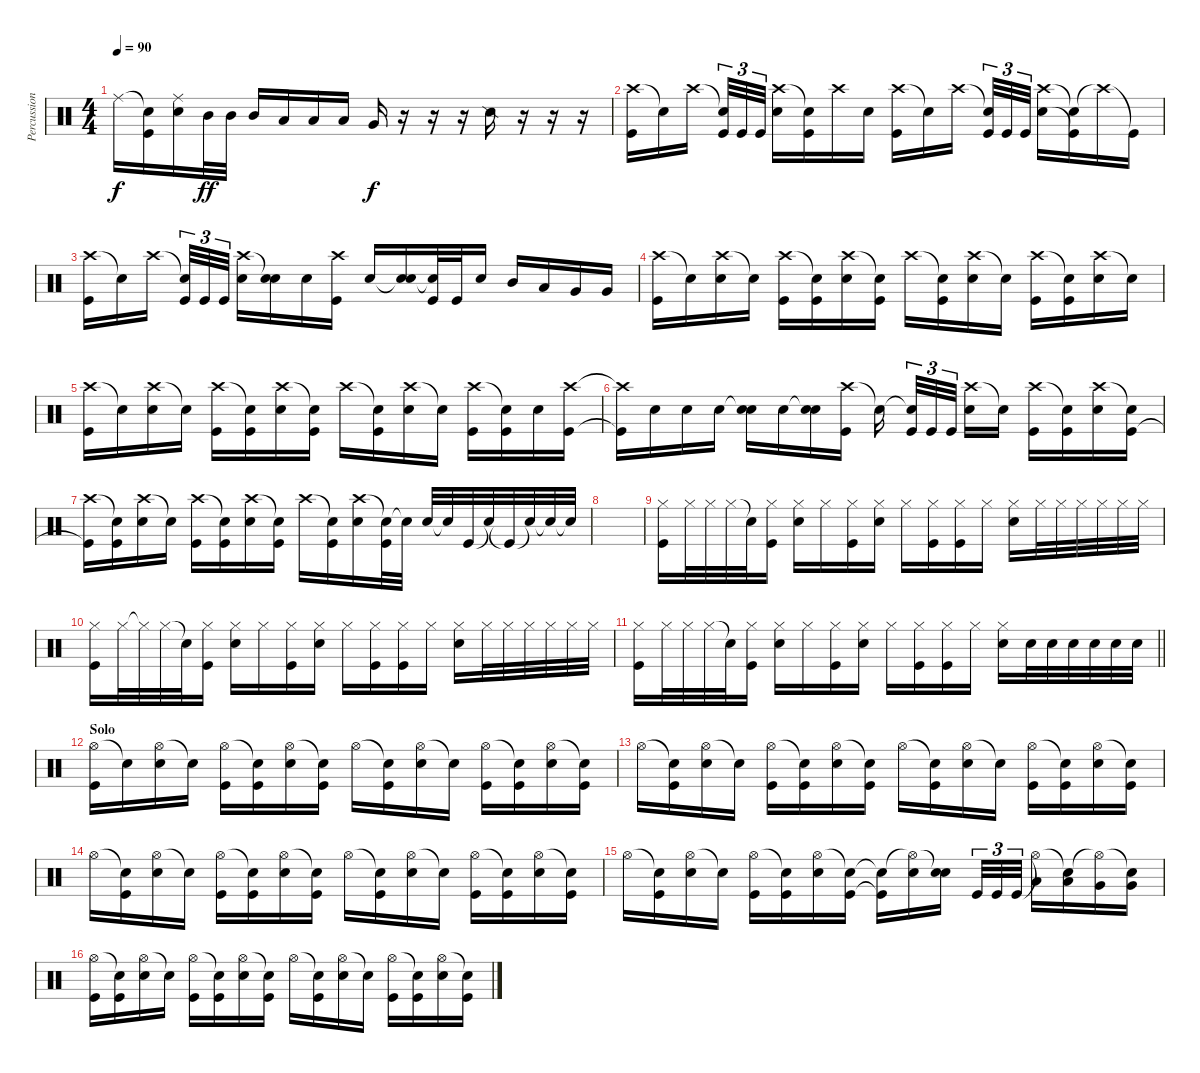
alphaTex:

\track ("Percussion" "Percussion") {instrument percussion}
\staff {score}
\articulation defaults
\ts (4 4)
\tempo 90
\clef neutral
\ks c "Ride (middle)".16{dy f}
("Snare (hit)"{t} "Kick (hit)").16 ("Ride (middle)" "Electric Snare (hit)").16 "Mid Tom (hit)".32{dy ff} "Mid Tom (hit)".32 "Mid Tom (hit)".16 "Low Tom (hit)".16 "Low Tom (hit)".16 "Low Tom (hit)".16 "Very Low Tom (hit)".16{dy f} r.16 r.16 r.16 "Snare (side stick) 2".16 r.16 r.16 r.16 |
("Crash high (hit)" "Kick (hit)").16 "Snare (hit)"{t}.16 "Crash high (hit)".16 ("Snare (hit)"{t} "Kick (hit)").32{tu (3 2)} "Kick (hit)".32{tu (3 2)} "Kick (hit)".32{tu (3 2)} ("Crash high (hit)" "Electric Snare (hit)").16 ("Snare (hit)"{t} "Kick (hit)").16 "Crash high (hit)".16 "Electric Snare (hit)".16 ("Crash high (hit)" "Kick (hit)").16 "Snare (hit)"{t}.16 "Crash high (hit)".16 ("Snare (hit)"{t} "Kick (hit)").32{tu (3 2)} "Kick (hit)".32{tu (3 2)} "Kick (hit)".32{tu (3 2)} ("Crash high (hit)" "Electric Snare (hit)").16 ("Snare (hit)"{t} "Kick (hit)"{t}).16 "Crash high (hit)"{t}.16 "Kick (hit)"{t}.16 |
("Crash high (hit)" "Kick (hit)").16 "Snare (hit)"{t}.16 "Crash high (hit)".16 ("Snare (hit)"{t} "Kick (hit)").32{tu (3 2)} "Kick (hit)".32{tu (3 2)} "Kick (hit)".32{tu (3 2)} ("Crash high (hit)" "Electric Snare (hit)").16 ("Snare (hit)"{t} "Electric Snare (hit)").16 "Electric Snare (hit)".16 ("Crash high (hit)" "Kick (hit)").16 "Electric Snare (hit)".16 ("Snare (hit)"{t} "Electric Snare (hit)").16 ("Snare (hit)"{t} "Kick (hit)").32 "Kick (hit)".32 "Electric Snare (hit)".16 "Mid Tom (hit)".16 "Low Tom (hit)".16 "Very Low Tom (hit)".16 "Very Low Tom (hit)".16 |
("Crash high (hit)" "Kick (hit)").16 "Snare (hit)"{t}.16 ("Crash high (hit)" "Electric Snare (hit)").16 "Snare (hit)"{t}.16 ("Crash high (hit)" "Kick (hit)").16 ("Snare (hit)"{t} "Kick (hit)").16 ("Crash high (hit)" "Electric Snare (hit)").16 ("Snare (hit)"{t} "Kick (hit)").16 "Crash high (hit)".16 ("Snare (hit)"{t} "Kick (hit)").16 ("Crash high (hit)" "Electric Snare (hit)").16 "Snare (hit)"{t}.16 ("Crash high (hit)" "Kick (hit)").16 ("Snare (hit)"{t} "Kick (hit)").16 ("Crash high (hit)" "Electric Snare (hit)").16 "Snare (hit)"{t}.16 |
("Crash high (hit)" "Kick (hit)").16 "Snare (hit)"{t}.16 ("Crash high (hit)" "Electric Snare (hit)").16 "Snare (hit)"{t}.16 ("Crash high (hit)" "Kick (hit)").16 ("Snare (hit)"{t} "Kick (hit)").16 ("Crash high (hit)" "Electric Snare (hit)").16 ("Snare (hit)"{t} "Kick (hit)").16 "Crash high (hit)".16 ("Snare (hit)"{t} "Kick (hit)").16 ("Crash high (hit)" "Electric Snare (hit)").16 "Snare (hit)"{t}.16 ("Crash high (hit)" "Kick (hit)").16 ("Snare (hit)"{t} "Kick (hit)").16 "Electric Snare (hit)".16 ("Crash high (hit)" "Kick (hit)").16 |
("Crash high (hit)"{t} "Kick (hit)"{t}).16 "Electric Snare (hit)".16 "Electric Snare (hit)".16 "Electric Snare (hit)".16 ("Snare (hit)"{t} "Electric Snare (hit)").16 "Electric Snare (hit)".16 ("Snare (hit)"{t} "Electric Snare (hit)").16 ("Crash high (hit)" "Kick (hit)").16 "Snare (hit)"{t}.16 ("Snare (hit)"{t} "Kick (hit)").32{tu (3 2)} "Kick (hit)".32{tu (3 2)} "Kick (hit)".32{tu (3 2)} ("Crash high (hit)" "Electric Snare (hit)").16 "Snare (hit)"{t}.16 ("Crash high (hit)" "Kick (hit)").16 ("Snare (hit)"{t} "Kick (hit)").16 ("Crash high (hit)" "Electric Snare (hit)").16 ("Snare (hit)"{t} "Kick (hit)").16 |
("Crash high (hit)" "Kick (hit)"{t}).16 ("Snare (hit)"{t} "Kick (hit)").16 ("Crash high (hit)" "Electric Snare (hit)").16 "Snare (hit)"{t}.16 ("Crash high (hit)" "Kick (hit)").16 ("Snare (hit)"{t} "Kick (hit)").16 ("Crash high (hit)" "Electric Snare (hit)").16 ("Snare (hit)"{t} "Kick (hit)").16 "Crash high (hit)".16 ("Snare (hit)"{t} "Kick (hit)").16 ("Crash high (hit)" "Electric Snare (hit)").16 ("Snare (hit)"{t} "Kick (hit)").32 "Electric Snare (hit)"{t}.32 "Electric Snare (hit)".32 "Snare (hit)"{t}.32 "Kick (hit)".32 "Snare (hit)"{t}.32 "Kick (hit)"{t}.32 "Snare (hit)"{t}.32 "Snare (hit)"{t}.32 "Snare (hit)"{t}.32 |
|
("Hi-Hat (closed)" "Kick (hit)").16 "Hi-Hat (closed)".32 "Hi-Hat (closed)".32 "Hi-Hat (closed)".32 "Snare (hit)"{t}.32 ("Hi-Hat (closed)" "Kick (hit)").16 ("Hi-Hat (closed)" "Electric Snare (hit)").16 "Hi-Hat (closed)".16 ("Hi-Hat (closed)" "Kick (hit)").16 ("Hi-Hat (closed)" "Electric Snare (hit)").16 "Hi-Hat (closed)".16 ("Hi-Hat (closed)" "Kick (hit)").16 ("Hi-Hat (closed)" "Kick (hit)").16 "Hi-Hat (closed)".16 ("Hi-Hat (closed)" "Electric Snare (hit)").16 "Hi-Hat (closed)".32 "Hi-Hat (closed)".32 "Hi-Hat (closed)".32 "Hi-Hat (closed)".32 "Hi-Hat (closed)".32 "Hi-Hat (closed)".32 |
("Hi-Hat (closed)" "Kick (hit)").16 "Hi-Hat (closed)".32 "Hi-Hat (closed)"{t}.32 "Hi-Hat (closed)".32 "Snare (hit)"{t}.32 ("Hi-Hat (closed)" "Kick (hit)").16 ("Hi-Hat (closed)" "Electric Snare (hit)").16 "Hi-Hat (closed)".16 ("Hi-Hat (closed)" "Kick (hit)").16 ("Hi-Hat (closed)" "Electric Snare (hit)").16 "Hi-Hat (closed)".16 ("Hi-Hat (closed)" "Kick (hit)").16 ("Hi-Hat (closed)" "Kick (hit)").16 "Hi-Hat (closed)".16 ("Hi-Hat (closed)" "Electric Snare (hit)").16 "Hi-Hat (closed)".32 "Hi-Hat (closed)".32 "Hi-Hat (closed)".32 "Hi-Hat (closed)".32 "Hi-Hat (closed)".32 "Hi-Hat (closed)".32 |
\barLineRight lightlight
("Hi-Hat (closed)" "Kick (hit)").16 "Hi-Hat (closed)".32 "Hi-Hat (closed)".32 "Hi-Hat (closed)".32 "Snare (hit)"{t}.32 ("Hi-Hat (closed)" "Kick (hit)").16 ("Hi-Hat (closed)" "Electric Snare (hit)").16 "Hi-Hat (closed)".16 ("Hi-Hat (closed)" "Kick (hit)").16 ("Hi-Hat (closed)" "Electric Snare (hit)").16 "Hi-Hat (closed)".16 ("Hi-Hat (closed)" "Kick (hit)").16 ("Hi-Hat (closed)" "Kick (hit)").16 "Hi-Hat (closed)".16 ("Hi-Hat (closed)" "Electric Snare (hit)").16 "Electric Snare (hit)".32 "Electric Snare (hit)".32 "Electric Snare (hit)".32 "Electric Snare (hit)".32 "Electric Snare (hit)".32 "Electric Snare (hit)".32 |
\section ("" "Solo")
("Hi-Hat (open)" "Kick (hit)").16 "Snare (hit)"{t}.16 ("Hi-Hat (open)" "Electric Snare (hit)").16 "Snare (hit)"{t}.16 ("Hi-Hat (open)" "Kick (hit)").16 ("Snare (hit)"{t} "Kick (hit)").16 ("Hi-Hat (open)" "Electric Snare (hit)").16 ("Snare (hit)"{t} "Kick (hit)").16 "Hi-Hat (open)".16 ("Snare (hit)"{t} "Kick (hit)").16 ("Hi-Hat (open)" "Electric Snare (hit)").16 "Snare (hit)"{t}.16 ("Hi-Hat (open)" "Kick (hit)").16 ("Snare (hit)"{t} "Kick (hit)").16 ("Hi-Hat (open)" "Electric Snare (hit)").16 ("Snare (hit)"{t} "Kick (hit)").16 |
"Hi-Hat (open)".16 ("Snare (hit)"{t} "Kick (hit)").16 ("Hi-Hat (open)" "Electric Snare (hit)").16 "Snare (hit)"{t}.16 ("Hi-Hat (open)" "Kick (hit)").16 ("Snare (hit)"{t} "Kick (hit)").16 ("Hi-Hat (open)" "Electric Snare (hit)").16 ("Snare (hit)"{t} "Kick (hit)").16 "Hi-Hat (open)".16 ("Snare (hit)"{t} "Kick (hit)").16 ("Hi-Hat (open)" "Electric Snare (hit)").16 "Snare (hit)"{t}.16 ("Hi-Hat (open)" "Kick (hit)").16 ("Snare (hit)"{t} "Kick (hit)").16 ("Hi-Hat (open)" "Electric Snare (hit)").16 ("Snare (hit)"{t} "Kick (hit)").16 |
"Hi-Hat (open)".16 ("Snare (hit)"{t} "Kick (hit)").16 ("Hi-Hat (open)" "Electric Snare (hit)").16 "Snare (hit)"{t}.16 ("Hi-Hat (open)" "Kick (hit)").16 ("Snare (hit)"{t} "Kick (hit)").16 ("Hi-Hat (open)" "Electric Snare (hit)").16 ("Snare (hit)"{t} "Kick (hit)").16 "Hi-Hat (open)".16 ("Snare (hit)"{t} "Kick (hit)").16 ("Hi-Hat (open)" "Electric Snare (hit)").16 "Snare (hit)"{t}.16 ("Hi-Hat (open)" "Kick (hit)").16 ("Snare (hit)"{t} "Kick (hit)").16 ("Hi-Hat (open)" "Electric Snare (hit)").16 ("Snare (hit)"{t} "Kick (hit)").16 |
"Hi-Hat (open)".16 ("Snare (hit)"{t} "Kick (hit)").16 ("Hi-Hat (open)" "Electric Snare (hit)").16 "Snare (hit)"{t}.16 ("Hi-Hat (open)" "Kick (hit)").16 ("Snare (hit)"{t} "Kick (hit)").16 ("Hi-Hat (open)" "Electric Snare (hit)").16 ("Snare (hit)"{t} "Kick (hit)").16 ("Snare (hit)"{t} "Kick (hit)"{t}).16 ("Hi-Hat (open)"{t} "Electric Snare (hit)").16 ("Snare (hit)"{t} "Electric Snare (hit)").16 "Kick (hit)".32{tu (3 2)} "Kick (hit)".32{tu (3 2)} "Kick (hit)".32{tu (3 2)} ("Hi-Hat (open)"{t} "Low Tom (hit)").16 ("Snare (hit)"{t} "Low Tom (hit)").16 ("Hi-Hat (open)"{t} "Very Low Tom (hit)").16 ("Snare (hit)"{t} "Very Low Tom (hit)").16 |
("Hi-Hat (open)" "Kick (hit)").16 ("Snare (hit)"{t} "Kick (hit)").16 ("Hi-Hat (open)" "Electric Snare (hit)").16 "Snare (hit)"{t}.16 ("Hi-Hat (open)" "Kick (hit)").16 ("Snare (hit)"{t} "Kick (hit)").16 ("Hi-Hat (open)" "Electric Snare (hit)").16 ("Snare (hit)"{t} "Kick (hit)").16 "Hi-Hat (open)".16 ("Snare (hit)"{t} "Kick (hit)").16 ("Hi-Hat (open)" "Electric Snare (hit)").16 "Snare (hit)"{t}.16 ("Hi-Hat (open)" "Kick (hit)").16 ("Snare (hit)"{t} "Kick (hit)").16 ("Hi-Hat (open)" "Electric Snare (hit)").16 ("Snare (hit)"{t} "Kick (hit)").16
